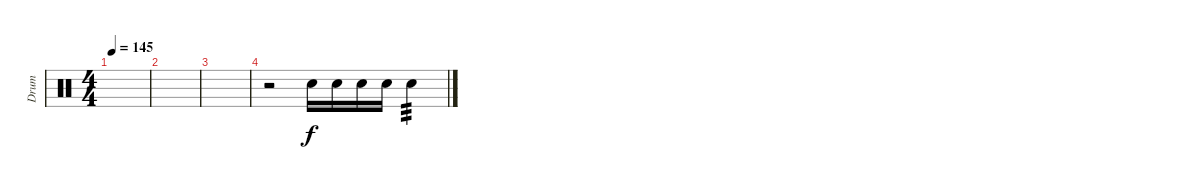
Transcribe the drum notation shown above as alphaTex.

\track ("Drum" "Drum") {instrument percussion bank 4}
\staff {score}
\articulation defaults
\ts (4 4)
\tempo 145
\clef neutral
\ks c
|
|
|
r.2 "Electric Snare (hit)".16 "Electric Snare (hit)".16 "Electric Snare (hit)".16 "Electric Snare (hit)".16 "Electric Snare (hit)".4{tp 3}
